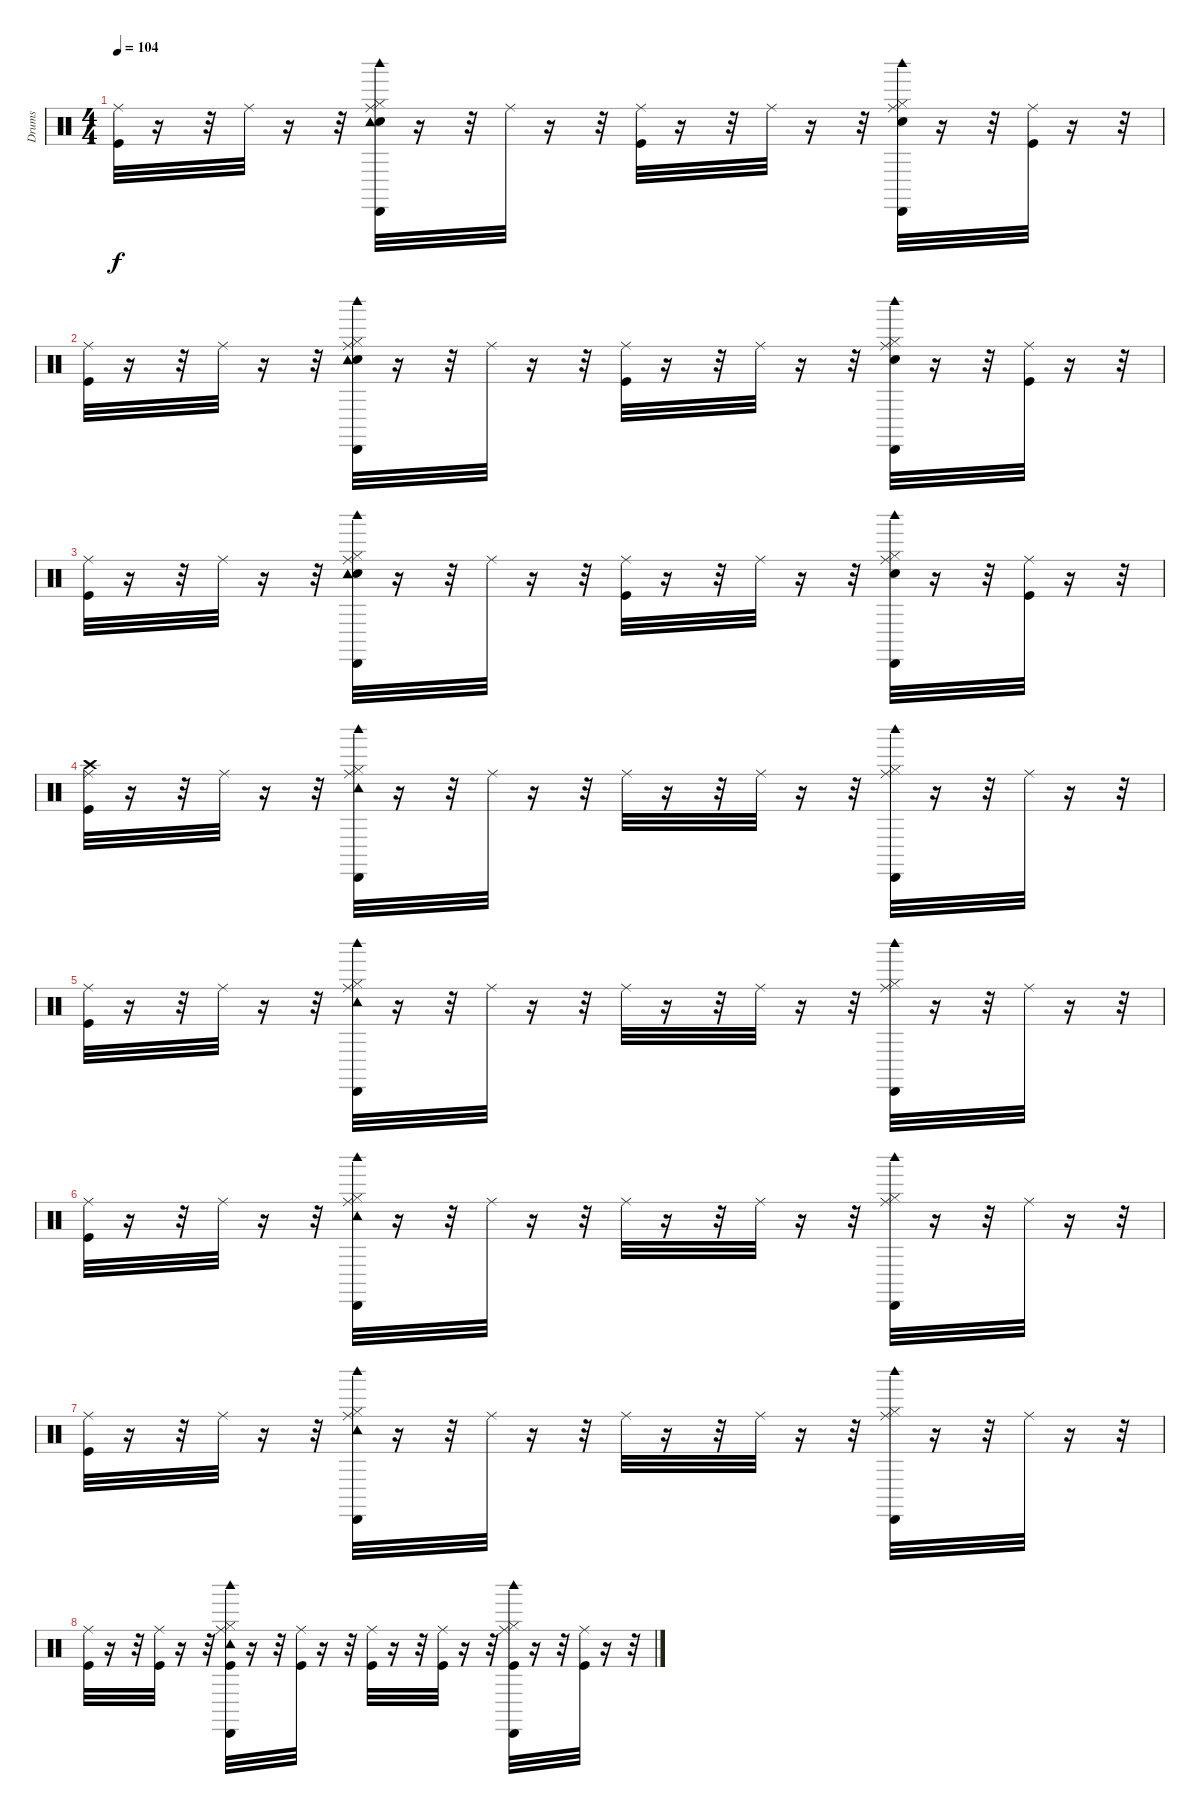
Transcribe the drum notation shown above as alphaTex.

\track ("Drums" "Drums") {instrument percussion}
\staff {score}
\articulation defaults
\ts (4 4)
\tempo 104
\clef neutral
\ks c
("Kick (hit)" "Ride (middle)").32{dy f} r.16 r.32 "Ride (middle)".32 r.16 r.32 ("Snare (hit) 2" "Hi-Hat (closed)" "Ride (middle)" "Tambourine (hit)" "Cabasa (hit)" "Woodblock high (hit)").32 r.16 r.32 "Ride (middle)".32 r.16 r.32 ("Kick (hit)" "Ride (middle)").32 r.16 r.32 "Ride (middle)".32 r.16 r.32 ("Snare (hit) 2" "Hi-Hat (closed)" "Ride (middle)" "Cabasa (hit)" "Woodblock high (hit)").32 r.16 r.32 ("Kick (hit)" "Ride (middle)").32 r.16 r.32 |
("Kick (hit)" "Ride (middle)").32 r.16 r.32 "Ride (middle)".32 r.16 r.32 ("Snare (hit) 2" "Hi-Hat (closed)" "Ride (middle)" "Tambourine (hit)" "Cabasa (hit)" "Woodblock high (hit)").32 r.16 r.32 "Ride (middle)".32 r.16 r.32 ("Kick (hit)" "Ride (middle)").32 r.16 r.32 "Ride (middle)".32 r.16 r.32 ("Snare (hit) 2" "Hi-Hat (closed)" "Ride (middle)" "Cabasa (hit)" "Woodblock high (hit)").32 r.16 r.32 ("Kick (hit)" "Ride (middle)").32 r.16 r.32 |
("Kick (hit)" "Ride (middle)").32 r.16 r.32 "Ride (middle)".32 r.16 r.32 ("Snare (hit) 2" "Hi-Hat (closed)" "Ride (middle)" "Tambourine (hit)" "Cabasa (hit)" "Woodblock high (hit)").32 r.16 r.32 "Ride (middle)".32 r.16 r.32 ("Kick (hit)" "Ride (middle)").32 r.16 r.32 "Ride (middle)".32 r.16 r.32 ("Snare (hit) 2" "Hi-Hat (closed)" "Ride (middle)" "Cabasa (hit)" "Woodblock high (hit)").32 r.16 r.32 ("Kick (hit)" "Ride (middle)").32 r.16 r.32 |
("Kick (hit)" "Crash high (hit)" "Ride (middle)").32 r.16 r.32 "Ride (middle)".32 r.16 r.32 ("Hi-Hat (closed)" "Ride (middle)" "Tambourine (hit)" "Cabasa (hit)" "Woodblock high (hit)").32 r.16 r.32 "Ride (middle)".32 r.16 r.32 "Ride (middle)".32 r.16 r.32 "Ride (middle)".32 r.16 r.32 ("Hi-Hat (closed)" "Ride (middle)" "Cabasa (hit)" "Woodblock high (hit)").32 r.16 r.32 "Ride (middle)".32 r.16 r.32 |
("Kick (hit)" "Ride (middle)").32 r.16 r.32 "Ride (middle)".32 r.16 r.32 ("Hi-Hat (closed)" "Ride (middle)" "Tambourine (hit)" "Cabasa (hit)" "Woodblock high (hit)").32 r.16 r.32 "Ride (middle)".32 r.16 r.32 "Ride (middle)".32 r.16 r.32 "Ride (middle)".32 r.16 r.32 ("Hi-Hat (closed)" "Ride (middle)" "Cabasa (hit)" "Woodblock high (hit)").32 r.16 r.32 "Ride (middle)".32 r.16 r.32 |
("Kick (hit)" "Ride (middle)").32 r.16 r.32 "Ride (middle)".32 r.16 r.32 ("Hi-Hat (closed)" "Ride (middle)" "Tambourine (hit)" "Cabasa (hit)" "Woodblock high (hit)").32 r.16 r.32 "Ride (middle)".32 r.16 r.32 "Ride (middle)".32 r.16 r.32 "Ride (middle)".32 r.16 r.32 ("Hi-Hat (closed)" "Ride (middle)" "Cabasa (hit)" "Woodblock high (hit)").32 r.16 r.32 "Ride (middle)".32 r.16 r.32 |
("Kick (hit)" "Ride (middle)").32 r.16 r.32 "Ride (middle)".32 r.16 r.32 ("Hi-Hat (closed)" "Ride (middle)" "Tambourine (hit)" "Cabasa (hit)" "Woodblock high (hit)").32 r.16 r.32 "Ride (middle)".32 r.16 r.32 "Ride (middle)".32 r.16 r.32 "Ride (middle)".32 r.16 r.32 ("Hi-Hat (closed)" "Ride (middle)" "Cabasa (hit)" "Woodblock high (hit)").32 r.16 r.32 "Ride (middle)".32 r.16 r.32 |
("Kick (hit)" "Ride (middle)").32 r.16 r.32 ("Kick (hit)" "Ride (middle)").32 r.16 r.32 ("Kick (hit)" "Hi-Hat (closed)" "Ride (middle)" "Tambourine (hit)" "Cabasa (hit)" "Woodblock high (hit)").32 r.16 r.32 ("Kick (hit)" "Ride (middle)").32 r.16 r.32 ("Kick (hit)" "Ride (middle)").32 r.16 r.32 ("Kick (hit)" "Ride (middle)").32 r.16 r.32 ("Kick (hit)" "Hi-Hat (closed)" "Ride (middle)" "Cabasa (hit)" "Woodblock high (hit)").32 r.16 r.32 ("Kick (hit)" "Ride (middle)").32 r.16 r.32
